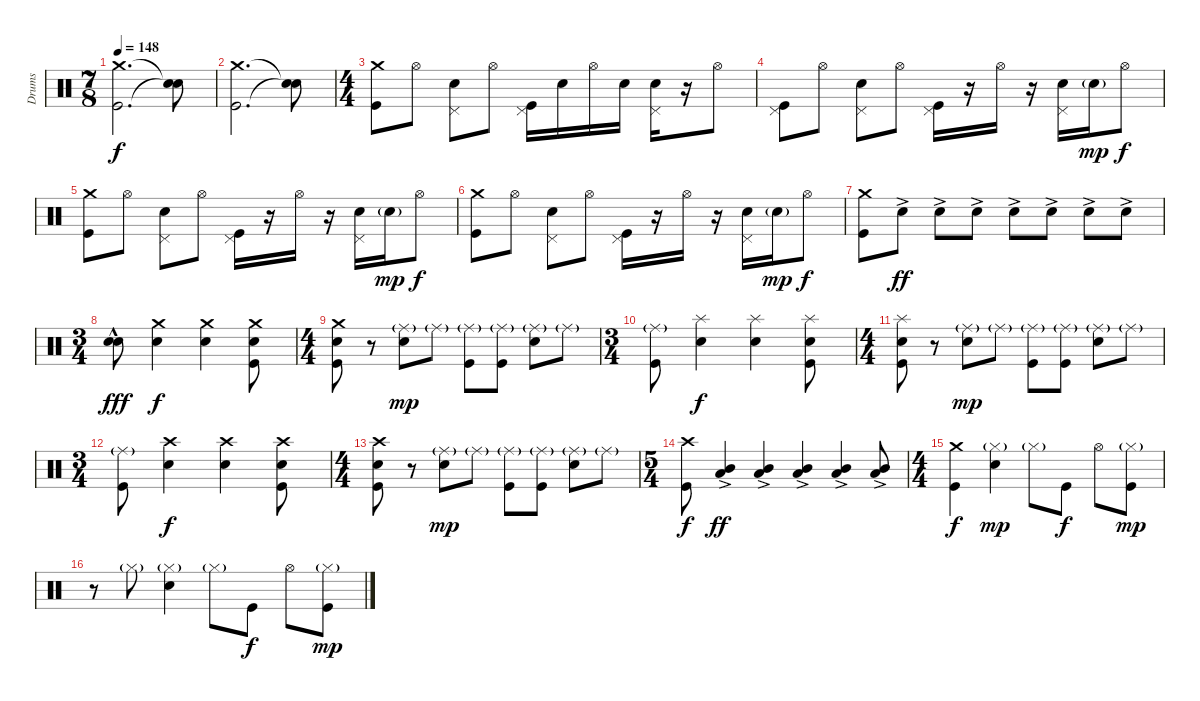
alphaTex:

\track ("Drums" "Drums") {instrument percussion}
\staff {score}
\articulation defaults
\ts (7 8)
\tempo 148
\clef neutral
\ks c
("Crash medium (hit)" "Kick (hit)").2{d dy f} ("Snare (hit)"{t} "Snare (hit)"{t}).8 |
("Crash medium (hit)" "Kick (hit)").2{d} ("Snare (hit)"{t} "Snare (hit)"{t}).8 |
\ts (4 4)
("Crash medium (hit)" "Kick (hit)").8 "Hi-Hat (open)".8 ("Pedal Hi-Hat (hit)" "Electric Snare (hit)").8 "Hi-Hat (open)".8 ("Pedal Hi-Hat (hit)" "Kick (hit)").16 "Electric Snare (hit)".16 "Hi-Hat (open)".16 "Electric Snare (hit)".16 ("Pedal Hi-Hat (hit)" "Electric Snare (hit)").16 r.16 "Hi-Hat (open)".8 |
("Pedal Hi-Hat (hit)" "Kick (hit)").8 "Hi-Hat (open)".8 ("Pedal Hi-Hat (hit)" "Electric Snare (hit)").8 "Hi-Hat (open)".8 ("Pedal Hi-Hat (hit)" "Kick (hit)").16 r.16 "Hi-Hat (open)".16 r.16 ("Pedal Hi-Hat (hit)" "Electric Snare (hit)").16 "Electric Snare (hit)"{g}.16{dy mp} "Hi-Hat (open)".8{dy f} |
("Crash medium (hit)" "Kick (hit)").8 "Hi-Hat (open)".8 ("Pedal Hi-Hat (hit)" "Electric Snare (hit)").8 "Hi-Hat (open)".8 ("Pedal Hi-Hat (hit)" "Kick (hit)").16 r.16 "Hi-Hat (open)".16 r.16 ("Pedal Hi-Hat (hit)" "Electric Snare (hit)").16 "Electric Snare (hit)"{g}.16{dy mp} "Hi-Hat (open)".8{dy f} |
("Crash medium (hit)" "Kick (hit)").8 "Hi-Hat (open)".8 ("Pedal Hi-Hat (hit)" "Electric Snare (hit)").8 "Hi-Hat (open)".8 ("Pedal Hi-Hat (hit)" "Kick (hit)").16 r.16 "Hi-Hat (open)".16 r.16 ("Pedal Hi-Hat (hit)" "Electric Snare (hit)").16 "Electric Snare (hit)"{g}.16{dy mp} "Hi-Hat (open)".8{dy f} |
("Crash medium (hit)" "Kick (hit)").8 "Electric Snare (hit)"{ac}.8{dy ff} "Electric Snare (hit)"{ac}.8 "Electric Snare (hit)"{ac}.8 "Electric Snare (hit)"{ac}.8 "Electric Snare (hit)"{ac}.8 "Electric Snare (hit)"{ac}.8 "Electric Snare (hit)"{ac}.8 |
\ts (3 4)
("Electric Snare (hit)"{hac} "Electric Snare (hit)"{hac}).8{dy fff} ("Crash medium (hit)" "Electric Snare (hit)").4{dy f} ("Crash medium (hit)" "Electric Snare (hit)").4 ("Crash medium (hit)" "Electric Snare (hit)" "Kick (hit)").8 |
\ts (4 4)
("Crash medium (hit)" "Electric Snare (hit)" "Kick (hit)").8 r.8 ("Ride (middle)"{g} "Electric Snare (hit)").8{dy mp} "Ride (middle)"{g}.8 ("Ride (middle)"{g} "Kick (hit)").8 ("Ride (middle)"{g} "Kick (hit)").8 ("Ride (middle)"{g} "Electric Snare (hit)").8 "Ride (middle)"{g}.8 |
\ts (3 4)
("Ride (middle)"{g} "Kick (hit)").8 ("Splash (hit)" "Electric Snare (hit)").4{dy f} ("Splash (hit)" "Electric Snare (hit)").4 ("Splash (hit)" "Electric Snare (hit)" "Kick (hit)").8 |
\ts (4 4)
("Splash (hit)" "Electric Snare (hit)" "Kick (hit)").8 r.8 ("Ride (middle)"{g} "Electric Snare (hit)").8{dy mp} "Ride (middle)"{g}.8 ("Ride (middle)"{g} "Kick (hit)").8 ("Ride (middle)"{g} "Kick (hit)").8 ("Ride (middle)"{g} "Electric Snare (hit)").8 "Ride (middle)"{g}.8 |
\ts (3 4)
("Ride (middle)"{g} "Kick (hit)").8 ("Crash high (hit)" "Electric Snare (hit)").4{dy f} ("Crash high (hit)" "Electric Snare (hit)").4 ("Crash high (hit)" "Electric Snare (hit)" "Kick (hit)").8 |
\ts (4 4)
("Crash high (hit)" "Electric Snare (hit)" "Kick (hit)").8 r.8 ("Ride (middle)"{g} "Electric Snare (hit)").8{dy mp} "Ride (middle)"{g}.8 ("Ride (middle)"{g} "Kick (hit)").8 ("Ride (middle)"{g} "Kick (hit)").8 ("Ride (middle)"{g} "Electric Snare (hit)").8 "Ride (middle)"{g}.8 |
\ts (5 4)
("Crash high (hit)" "Kick (hit)").8{dy f} ("Mid Tom (hit)"{ac} "Low Tom (hit)"{ac}).4{dy ff} ("Mid Tom (hit)"{ac} "Low Tom (hit)"{ac}).4 ("Mid Tom (hit)"{ac} "Low Tom (hit)"{ac}).4 ("Mid Tom (hit)"{ac} "Low Tom (hit)"{ac}).4 ("Mid Tom (hit)"{ac} "Low Tom (hit)"{ac}).8 |
\ts (4 4)
("Crash medium (hit)" "Kick (hit)").4{dy f} ("Hi-Hat (closed)"{g} "Electric Snare (hit)").4{dy mp} "Hi-Hat (closed)"{g}.8 "Kick (hit)".8{dy f} "Hi-Hat (open)".8 ("Hi-Hat (closed)"{g} "Kick (hit)").8{dy mp} |
r.8 "Hi-Hat (closed)"{g}.8 ("Hi-Hat (closed)"{g} "Electric Snare (hit)").4 "Hi-Hat (closed)"{g}.8 "Kick (hit)".8{dy f} "Hi-Hat (open)".8 ("Hi-Hat (closed)"{g} "Kick (hit)").8{dy mp}
